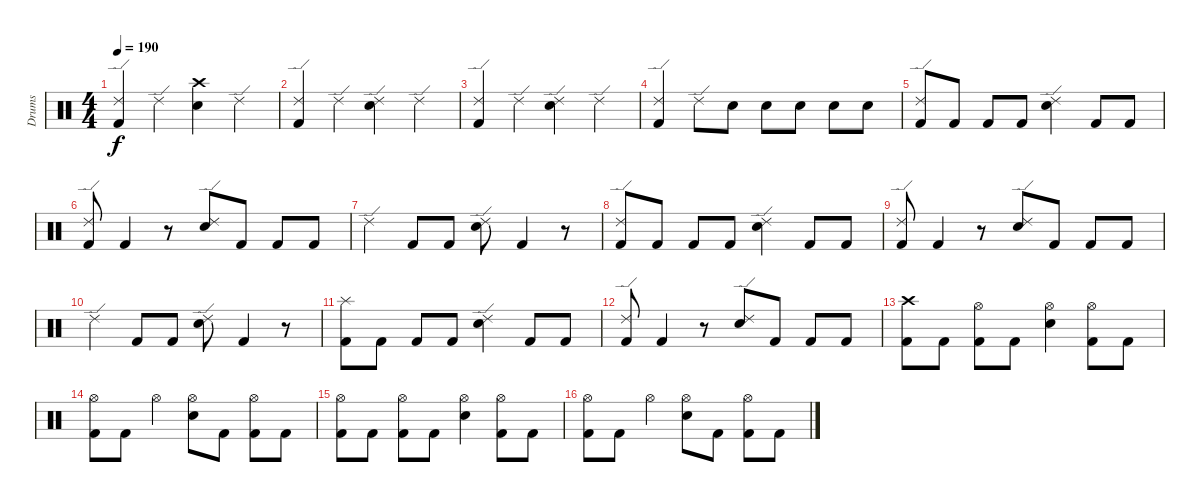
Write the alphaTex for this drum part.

\track ("Drums" "Drums") {instrument percussion}
\staff {score}
\articulation defaults
\ts (4 4)
\tempo 190
\clef neutral
\ks c
("Ride (edge) 2" "Kick (hit) 2").4{dy f} "Ride (edge) 2".4 ("Crash high (hit)" "Snare (hit) 2").4 "Ride (edge) 2".4 |
("Ride (edge) 2" "Kick (hit) 2").4 "Ride (edge) 2".4 ("Ride (edge) 2" "Snare (hit) 2").4 "Ride (edge) 2".4 |
("Ride (edge) 2" "Kick (hit) 2").4 "Ride (edge) 2".4 ("Ride (edge) 2" "Snare (hit) 2").4 "Ride (edge) 2".4 |
("Ride (edge) 2" "Kick (hit) 2").4 "Ride (edge) 2".8 "Snare (hit) 2".8 "Snare (hit) 2".8 "Snare (hit) 2".8 "Snare (hit) 2".8 "Snare (hit) 2".8 |
("Ride (edge) 2" "Kick (hit) 2").8 "Kick (hit) 2".8 "Kick (hit) 2".8 "Kick (hit) 2".8 ("Ride (edge) 2" "Snare (hit) 2").4 "Kick (hit) 2".8 "Kick (hit) 2".8 |
("Ride (edge) 2" "Kick (hit) 2").8 "Kick (hit) 2".4 r.8 ("Ride (edge) 2" "Snare (hit) 2").8 "Kick (hit) 2".8 "Kick (hit) 2".8 "Kick (hit) 2".8 |
"Ride (edge) 2".4 "Kick (hit) 2".8 "Kick (hit) 2".8 ("Ride (edge) 2" "Snare (hit) 2").8 "Kick (hit) 2".4 r.8 |
("Ride (edge) 2" "Kick (hit) 2").8 "Kick (hit) 2".8 "Kick (hit) 2".8 "Kick (hit) 2".8 ("Ride (edge) 2" "Snare (hit) 2").4 "Kick (hit) 2".8 "Kick (hit) 2".8 |
("Ride (edge) 2" "Kick (hit) 2").8 "Kick (hit) 2".4 r.8 ("Ride (edge) 2" "Snare (hit) 2").8 "Kick (hit) 2".8 "Kick (hit) 2".8 "Kick (hit) 2".8 |
"Ride (edge) 2".4 "Kick (hit) 2".8 "Kick (hit) 2".8 ("Ride (edge) 2" "Snare (hit) 2").8 "Kick (hit) 2".4 r.8 |
("Splash (hit)" "Kick (hit) 2").8 "Kick (hit) 2".8 "Kick (hit) 2".8 "Kick (hit) 2".8 ("Ride (edge) 2" "Snare (hit) 2").4 "Kick (hit) 2".8 "Kick (hit) 2".8 |
("Ride (edge) 2" "Kick (hit) 2").8 "Kick (hit) 2".4 r.8 ("Ride (edge) 2" "Snare (hit) 2").8 "Kick (hit) 2".8 "Kick (hit) 2".8 "Kick (hit) 2".8 |
("Crash high (hit)" "Kick (hit) 2").8 "Kick (hit) 2".8 ("Hi-Hat (open)" "Kick (hit) 2").8 "Kick (hit) 2".8 ("Hi-Hat (open)" "Snare (hit) 2").4 ("Hi-Hat (open)" "Kick (hit) 2").8 "Kick (hit) 2".8 |
("Hi-Hat (open)" "Kick (hit) 2").8 "Kick (hit) 2".8 "Hi-Hat (open)".4 ("Hi-Hat (open)" "Snare (hit) 2").8 "Kick (hit) 2".8 ("Hi-Hat (open)" "Kick (hit) 2").8 "Kick (hit) 2".8 |
("Hi-Hat (open)" "Kick (hit) 2").8 "Kick (hit) 2".8 ("Hi-Hat (open)" "Kick (hit) 2").8 "Kick (hit) 2".8 ("Hi-Hat (open)" "Snare (hit) 2").4 ("Hi-Hat (open)" "Kick (hit) 2").8 "Kick (hit) 2".8 |
("Hi-Hat (open)" "Kick (hit) 2").8 "Kick (hit) 2".8 "Hi-Hat (open)".4 ("Hi-Hat (open)" "Snare (hit) 2").8 "Kick (hit) 2".8 ("Hi-Hat (open)" "Kick (hit) 2").8 "Kick (hit) 2".8
